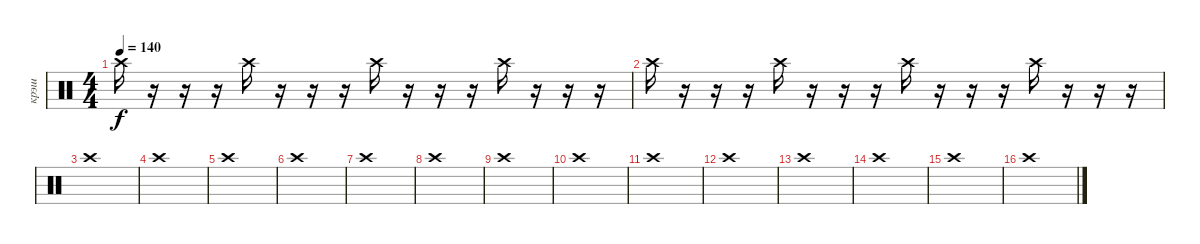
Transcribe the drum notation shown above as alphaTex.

\track ("крэш" "крэш") {mute instrument percussion}
\staff {score}
\articulation defaults
\ts (4 4)
\tempo 140
\clef neutral
\ks c "Crash high (hit)".16{dy f}
r.16 r.16 r.16 "Crash high (hit)".16 r.16 r.16 r.16 "Crash high (hit)".16 r.16 r.16 r.16 "Crash high (hit)".16 r.16 r.16 r.16 |
"Crash high (hit)".16 r.16 r.16 r.16 "Crash high (hit)".16 r.16 r.16 r.16 "Crash high (hit)".16 r.16 r.16 r.16 "Crash high (hit)".16 r.16 r.16 r.16 |
"Crash high (hit)".1 |
"Crash high (hit)".1 |
"Crash high (hit)".1 |
"Crash high (hit)".1 |
"Crash high (hit)".1 |
"Crash high (hit)".1 |
"Crash high (hit)".1 |
"Crash high (hit)".1 |
"Crash high (hit)".1 |
"Crash high (hit)".1 |
"Crash high (hit)".1 |
"Crash high (hit)".1 |
"Crash high (hit)".1 |
"Crash high (hit)".1
